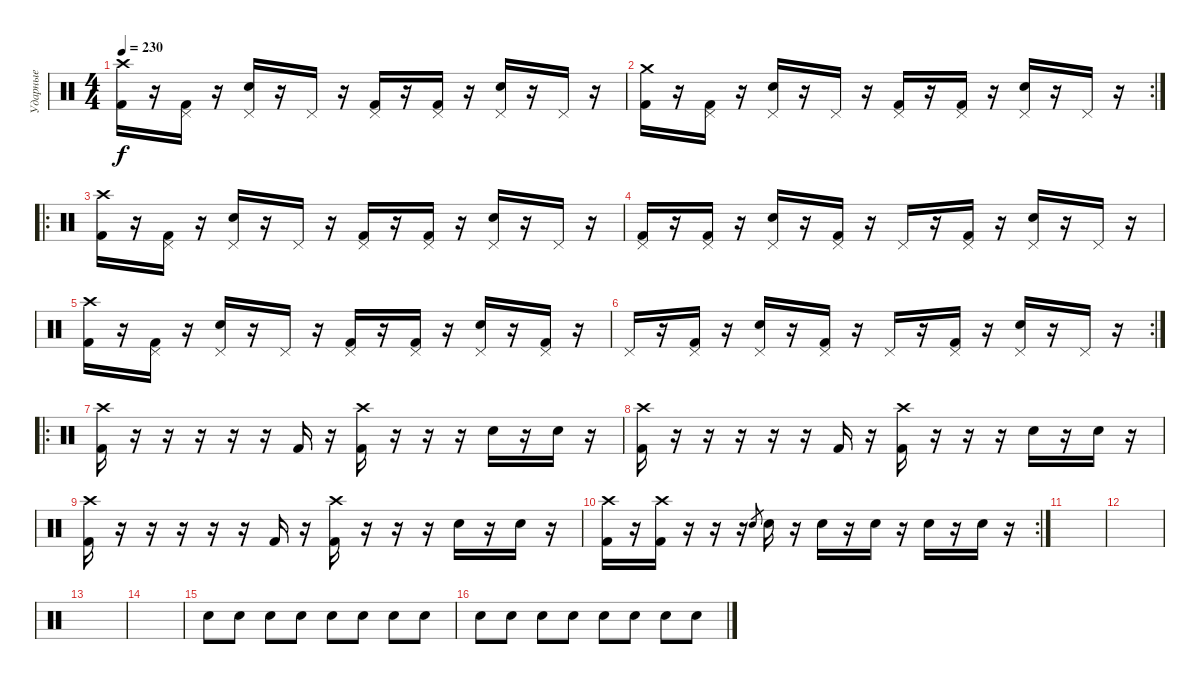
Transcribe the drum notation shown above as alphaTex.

\track ("Ударные" "Ударные") {instrument percussion}
\staff
\articulation defaults
\ts (4 4)
\tempo 230
\clef neutral
\ks c
("Crash high (hit)" "Kick (hit) 2").16{dy f} r.16 ("Pedal Hi-Hat (hit)" "Kick (hit) 2").16 r.16 ("Pedal Hi-Hat (hit)" "Electric Snare (hit)").16 r.16 "Pedal Hi-Hat (hit)".16 r.16 ("Pedal Hi-Hat (hit)" "Kick (hit) 2").16 r.16 ("Pedal Hi-Hat (hit)" "Kick (hit) 2").16 r.16 ("Pedal Hi-Hat (hit)" "Electric Snare (hit)").16 r.16 "Pedal Hi-Hat (hit)".16 r.16 |
\rc 2
("Crash medium (hit)" "Kick (hit) 2").16 r.16 ("Pedal Hi-Hat (hit)" "Kick (hit) 2").16 r.16 ("Pedal Hi-Hat (hit)" "Electric Snare (hit)").16 r.16 "Pedal Hi-Hat (hit)".16 r.16 ("Pedal Hi-Hat (hit)" "Kick (hit) 2").16 r.16 ("Pedal Hi-Hat (hit)" "Kick (hit) 2").16 r.16 ("Pedal Hi-Hat (hit)" "Electric Snare (hit)").16 r.16 "Pedal Hi-Hat (hit)".16 r.16 |
\ro
("Crash high (hit)" "Kick (hit) 2").16 r.16 ("Pedal Hi-Hat (hit)" "Kick (hit) 2").16 r.16 ("Pedal Hi-Hat (hit)" "Electric Snare (hit)").16 r.16 "Pedal Hi-Hat (hit)".16 r.16 ("Pedal Hi-Hat (hit)" "Kick (hit) 2").16 r.16 ("Pedal Hi-Hat (hit)" "Kick (hit) 2").16 r.16 ("Pedal Hi-Hat (hit)" "Electric Snare (hit)").16 r.16 "Pedal Hi-Hat (hit)".16 r.16 |
("Pedal Hi-Hat (hit)" "Kick (hit) 2").16 r.16 ("Pedal Hi-Hat (hit)" "Kick (hit) 2").16 r.16 ("Pedal Hi-Hat (hit)" "Electric Snare (hit)").16 r.16 ("Pedal Hi-Hat (hit)" "Kick (hit) 2").16 r.16 "Pedal Hi-Hat (hit)".16 r.16 ("Pedal Hi-Hat (hit)" "Kick (hit) 2").16 r.16 ("Pedal Hi-Hat (hit)" "Electric Snare (hit)").16 r.16 "Pedal Hi-Hat (hit)".16 r.16 |
("Crash high (hit)" "Kick (hit) 2").16 r.16 ("Pedal Hi-Hat (hit)" "Kick (hit) 2").16 r.16 ("Pedal Hi-Hat (hit)" "Electric Snare (hit)").16 r.16 "Pedal Hi-Hat (hit)".16 r.16 ("Pedal Hi-Hat (hit)" "Kick (hit) 2").16 r.16 ("Pedal Hi-Hat (hit)" "Kick (hit) 2").16 r.16 ("Pedal Hi-Hat (hit)" "Electric Snare (hit)").16 r.16 ("Pedal Hi-Hat (hit)" "Kick (hit) 2").16 r.16 |
\rc 2 "Pedal Hi-Hat (hit)".16
r.16 ("Pedal Hi-Hat (hit)" "Kick (hit) 2").16 r.16 ("Pedal Hi-Hat (hit)" "Electric Snare (hit)").16 r.16 ("Pedal Hi-Hat (hit)" "Kick (hit) 2").16 r.16 "Pedal Hi-Hat (hit)".16 r.16 ("Pedal Hi-Hat (hit)" "Kick (hit) 2").16 r.16 ("Pedal Hi-Hat (hit)" "Electric Snare (hit)").16 r.16 "Pedal Hi-Hat (hit)".16 r.16 |
\ro
("Crash high (hit)" "Kick (hit) 2").16 r.16 r.16 r.16 r.16 r.16 "Kick (hit) 2".16 r.16 ("Crash high (hit)" "Kick (hit) 2").16 r.16 r.16 r.16 "Electric Snare (hit)".16 r.16 "Electric Snare (hit)".16 r.16 |
("Crash high (hit)" "Kick (hit) 2").16 r.16 r.16 r.16 r.16 r.16 "Kick (hit) 2".16 r.16 ("Crash high (hit)" "Kick (hit) 2").16 r.16 r.16 r.16 "Electric Snare (hit)".16 r.16 "Electric Snare (hit)".16 r.16 |
("Crash high (hit)" "Kick (hit) 2").16 r.16 r.16 r.16 r.16 r.16 "Kick (hit) 2".16 r.16 ("Crash high (hit)" "Kick (hit) 2").16 r.16 r.16 r.16 "Electric Snare (hit)".16 r.16 "Electric Snare (hit)".16 r.16 |
\rc 2
("Crash high (hit)" "Kick (hit) 2").16 r.16 ("Crash high (hit)" "Kick (hit) 2").16 r.16 r.16 r.16 "Electric Snare (hit)".8{gr} "Electric Snare (hit)".16 r.16 "Electric Snare (hit)".16 r.16 "Electric Snare (hit)".16 r.16 "Electric Snare (hit)".16 r.16 "Electric Snare (hit)".16 r.16 |
|
|
|
|
"Electric Snare (hit)".8{volume 0} "Electric Snare (hit)".8{volume 13} "Electric Snare (hit)".8 "Electric Snare (hit)".8 "Electric Snare (hit)".8 "Electric Snare (hit)".8 "Electric Snare (hit)".8 "Electric Snare (hit)".8 |
"Electric Snare (hit)".8 "Electric Snare (hit)".8 "Electric Snare (hit)".8 "Electric Snare (hit)".8 "Electric Snare (hit)".8 "Electric Snare (hit)".8 "Electric Snare (hit)".8 "Electric Snare (hit)".8
